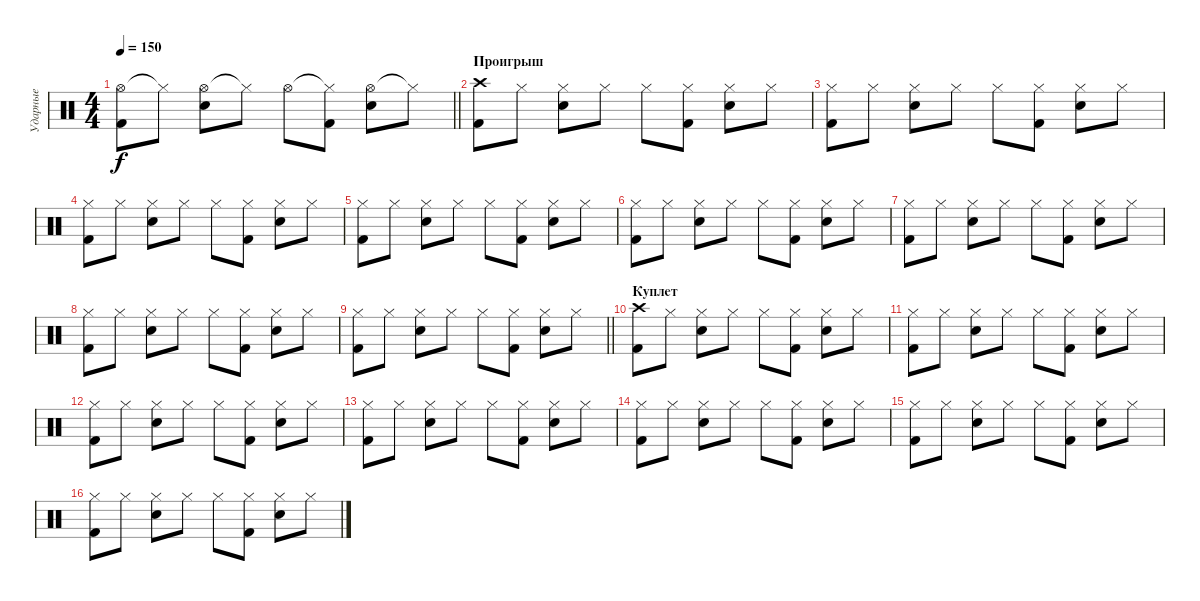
\track ("Ударные" "Ударные") {instrument percussion}
\staff {score}
\articulation defaults
\ts (4 4)
\tempo 150
\clef neutral
\barLineRight lightlight
\ks c
("Hi-Hat (open)" "Kick (hit) 2").8{dy f} "Hi-Hat (closed)"{t}.8 ("Hi-Hat (open)" "Snare (hit) 2").8 "Hi-Hat (closed)"{t}.8 "Hi-Hat (open)".8 ("Hi-Hat (closed)"{t} "Kick (hit) 2").8 ("Hi-Hat (open)" "Snare (hit) 2").8 "Hi-Hat (closed)"{t}.8 |
\section ("" "Проигрыш")
("Crash high (hit)" "Kick (hit) 2").8 "Hi-Hat (closed)".8 ("Hi-Hat (closed)" "Snare (hit) 2").8 "Hi-Hat (closed)".8 "Hi-Hat (closed)".8 ("Hi-Hat (closed)" "Kick (hit) 2").8 ("Hi-Hat (closed)" "Snare (hit) 2").8 "Hi-Hat (closed)".8 |
("Hi-Hat (closed)" "Kick (hit) 2").8 "Hi-Hat (closed)".8 ("Hi-Hat (closed)" "Snare (hit) 2").8 "Hi-Hat (closed)".8 "Hi-Hat (closed)".8 ("Hi-Hat (closed)" "Kick (hit) 2").8 ("Hi-Hat (closed)" "Snare (hit) 2").8 "Hi-Hat (closed)".8 |
("Hi-Hat (closed)" "Kick (hit) 2").8 "Hi-Hat (closed)".8 ("Hi-Hat (closed)" "Snare (hit) 2").8 "Hi-Hat (closed)".8 "Hi-Hat (closed)".8 ("Hi-Hat (closed)" "Kick (hit) 2").8 ("Hi-Hat (closed)" "Snare (hit) 2").8 "Hi-Hat (closed)".8 |
("Hi-Hat (closed)" "Kick (hit) 2").8 "Hi-Hat (closed)".8 ("Hi-Hat (closed)" "Snare (hit) 2").8 "Hi-Hat (closed)".8 "Hi-Hat (closed)".8 ("Hi-Hat (closed)" "Kick (hit) 2").8 ("Hi-Hat (closed)" "Snare (hit) 2").8 "Hi-Hat (closed)".8 |
("Hi-Hat (closed)" "Kick (hit) 2").8 "Hi-Hat (closed)".8 ("Hi-Hat (closed)" "Snare (hit) 2").8 "Hi-Hat (closed)".8 "Hi-Hat (closed)".8 ("Hi-Hat (closed)" "Kick (hit) 2").8 ("Hi-Hat (closed)" "Snare (hit) 2").8 "Hi-Hat (closed)".8 |
("Hi-Hat (closed)" "Kick (hit) 2").8 "Hi-Hat (closed)".8 ("Hi-Hat (closed)" "Snare (hit) 2").8 "Hi-Hat (closed)".8 "Hi-Hat (closed)".8 ("Hi-Hat (closed)" "Kick (hit) 2").8 ("Hi-Hat (closed)" "Snare (hit) 2").8 "Hi-Hat (closed)".8 |
("Hi-Hat (closed)" "Kick (hit) 2").8 "Hi-Hat (closed)".8 ("Hi-Hat (closed)" "Snare (hit) 2").8 "Hi-Hat (closed)".8 "Hi-Hat (closed)".8 ("Hi-Hat (closed)" "Kick (hit) 2").8 ("Hi-Hat (closed)" "Snare (hit) 2").8 "Hi-Hat (closed)".8 |
\barLineRight lightlight
("Hi-Hat (closed)" "Kick (hit) 2").8 "Hi-Hat (closed)".8 ("Hi-Hat (closed)" "Snare (hit) 2").8 "Hi-Hat (closed)".8 "Hi-Hat (closed)".8 ("Hi-Hat (closed)" "Kick (hit) 2").8 ("Hi-Hat (closed)" "Snare (hit) 2").8 "Hi-Hat (closed)".8 |
\section ("" "Куплет")
("Crash high (hit)" "Kick (hit) 2").8 "Hi-Hat (closed)".8 ("Hi-Hat (closed)" "Snare (hit) 2").8 "Hi-Hat (closed)".8 "Hi-Hat (closed)".8 ("Hi-Hat (closed)" "Kick (hit) 2").8 ("Hi-Hat (closed)" "Snare (hit) 2").8 "Hi-Hat (closed)".8 |
("Hi-Hat (closed)" "Kick (hit) 2").8 "Hi-Hat (closed)".8 ("Hi-Hat (closed)" "Snare (hit) 2").8 "Hi-Hat (closed)".8 "Hi-Hat (closed)".8 ("Hi-Hat (closed)" "Kick (hit) 2").8 ("Hi-Hat (closed)" "Snare (hit) 2").8 "Hi-Hat (closed)".8 |
("Hi-Hat (closed)" "Kick (hit) 2").8 "Hi-Hat (closed)".8 ("Hi-Hat (closed)" "Snare (hit) 2").8 "Hi-Hat (closed)".8 "Hi-Hat (closed)".8 ("Hi-Hat (closed)" "Kick (hit) 2").8 ("Hi-Hat (closed)" "Snare (hit) 2").8 "Hi-Hat (closed)".8 |
("Hi-Hat (closed)" "Kick (hit) 2").8 "Hi-Hat (closed)".8 ("Hi-Hat (closed)" "Snare (hit) 2").8 "Hi-Hat (closed)".8 "Hi-Hat (closed)".8 ("Hi-Hat (closed)" "Kick (hit) 2").8 ("Hi-Hat (closed)" "Snare (hit) 2").8 "Hi-Hat (closed)".8 |
("Hi-Hat (closed)" "Kick (hit) 2").8 "Hi-Hat (closed)".8 ("Hi-Hat (closed)" "Snare (hit) 2").8 "Hi-Hat (closed)".8 "Hi-Hat (closed)".8 ("Hi-Hat (closed)" "Kick (hit) 2").8 ("Hi-Hat (closed)" "Snare (hit) 2").8 "Hi-Hat (closed)".8 |
("Hi-Hat (closed)" "Kick (hit) 2").8 "Hi-Hat (closed)".8 ("Hi-Hat (closed)" "Snare (hit) 2").8 "Hi-Hat (closed)".8 "Hi-Hat (closed)".8 ("Hi-Hat (closed)" "Kick (hit) 2").8 ("Hi-Hat (closed)" "Snare (hit) 2").8 "Hi-Hat (closed)".8 |
("Hi-Hat (closed)" "Kick (hit) 2").8 "Hi-Hat (closed)".8 ("Hi-Hat (closed)" "Snare (hit) 2").8 "Hi-Hat (closed)".8 "Hi-Hat (closed)".8 ("Hi-Hat (closed)" "Kick (hit) 2").8 ("Hi-Hat (closed)" "Snare (hit) 2").8 "Hi-Hat (closed)".8
